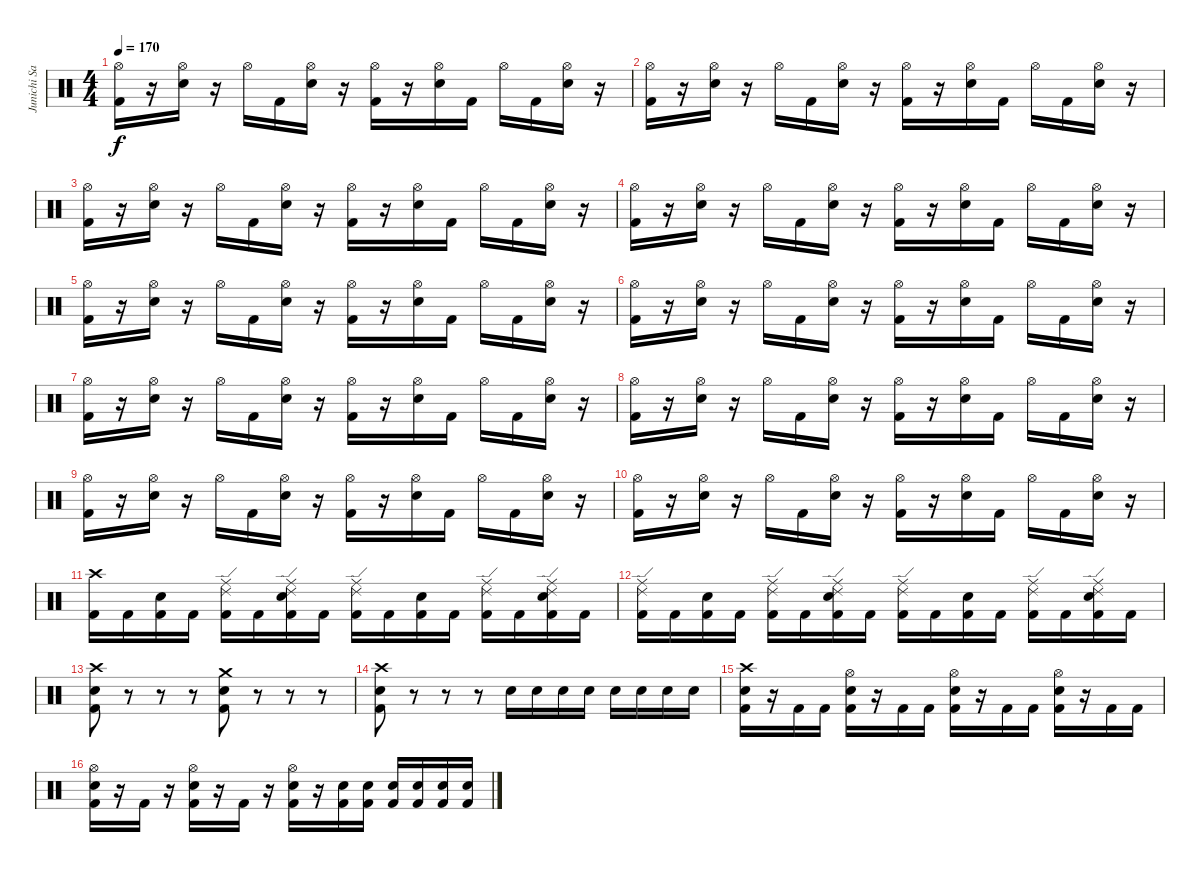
\track ("Junichi Sato" "Junichi Sa") {instrument percussion}
\staff {score}
\articulation defaults
\ts (4 4)
\tempo 170
\clef neutral
\ks c
("Hi-Hat (open)" "Kick (hit) 2").16{dy f} r.16 ("Hi-Hat (open)" "Electric Snare (hit)").16 r.16 "Hi-Hat (open)".16 "Kick (hit) 2".16 ("Hi-Hat (open)" "Electric Snare (hit)").16 r.16 ("Hi-Hat (open)" "Kick (hit) 2").16 r.16 ("Hi-Hat (open)" "Electric Snare (hit)").16 "Kick (hit) 2".16 "Hi-Hat (open)".16 "Kick (hit) 2".16 ("Hi-Hat (open)" "Electric Snare (hit)").16 r.16 |
("Hi-Hat (open)" "Kick (hit) 2").16 r.16 ("Hi-Hat (open)" "Electric Snare (hit)").16 r.16 "Hi-Hat (open)".16 "Kick (hit) 2".16 ("Hi-Hat (open)" "Electric Snare (hit)").16 r.16 ("Hi-Hat (open)" "Kick (hit) 2").16 r.16 ("Hi-Hat (open)" "Electric Snare (hit)").16 "Kick (hit) 2".16 "Hi-Hat (open)".16 "Kick (hit) 2".16 ("Hi-Hat (open)" "Electric Snare (hit)").16 r.16 |
("Hi-Hat (open)" "Kick (hit) 2").16 r.16 ("Hi-Hat (open)" "Electric Snare (hit)").16 r.16 "Hi-Hat (open)".16 "Kick (hit) 2".16 ("Hi-Hat (open)" "Electric Snare (hit)").16 r.16 ("Hi-Hat (open)" "Kick (hit) 2").16 r.16 ("Hi-Hat (open)" "Electric Snare (hit)").16 "Kick (hit) 2".16 "Hi-Hat (open)".16 "Kick (hit) 2".16 ("Hi-Hat (open)" "Electric Snare (hit)").16 r.16 |
("Hi-Hat (open)" "Kick (hit) 2").16 r.16 ("Hi-Hat (open)" "Electric Snare (hit)").16 r.16 "Hi-Hat (open)".16 "Kick (hit) 2".16 ("Hi-Hat (open)" "Electric Snare (hit)").16 r.16 ("Hi-Hat (open)" "Kick (hit) 2").16 r.16 ("Hi-Hat (open)" "Electric Snare (hit)").16 "Kick (hit) 2".16 "Hi-Hat (open)".16 "Kick (hit) 2".16 ("Hi-Hat (open)" "Electric Snare (hit)").16 r.16 |
("Hi-Hat (open)" "Kick (hit) 2").16 r.16 ("Hi-Hat (open)" "Electric Snare (hit)").16 r.16 "Hi-Hat (open)".16 "Kick (hit) 2".16 ("Hi-Hat (open)" "Electric Snare (hit)").16 r.16 ("Hi-Hat (open)" "Kick (hit) 2").16 r.16 ("Hi-Hat (open)" "Electric Snare (hit)").16 "Kick (hit) 2".16 "Hi-Hat (open)".16 "Kick (hit) 2".16 ("Hi-Hat (open)" "Electric Snare (hit)").16 r.16 |
("Hi-Hat (open)" "Kick (hit) 2").16 r.16 ("Hi-Hat (open)" "Electric Snare (hit)").16 r.16 "Hi-Hat (open)".16 "Kick (hit) 2".16 ("Hi-Hat (open)" "Electric Snare (hit)").16 r.16 ("Hi-Hat (open)" "Kick (hit) 2").16 r.16 ("Hi-Hat (open)" "Electric Snare (hit)").16 "Kick (hit) 2".16 "Hi-Hat (open)".16 "Kick (hit) 2".16 ("Hi-Hat (open)" "Electric Snare (hit)").16 r.16 |
("Hi-Hat (open)" "Kick (hit) 2").16 r.16 ("Hi-Hat (open)" "Electric Snare (hit)").16 r.16 "Hi-Hat (open)".16 "Kick (hit) 2".16 ("Hi-Hat (open)" "Electric Snare (hit)").16 r.16 ("Hi-Hat (open)" "Kick (hit) 2").16 r.16 ("Hi-Hat (open)" "Electric Snare (hit)").16 "Kick (hit) 2".16 "Hi-Hat (open)".16 "Kick (hit) 2".16 ("Hi-Hat (open)" "Electric Snare (hit)").16 r.16 |
("Hi-Hat (open)" "Kick (hit) 2").16 r.16 ("Hi-Hat (open)" "Electric Snare (hit)").16 r.16 "Hi-Hat (open)".16 "Kick (hit) 2".16 ("Hi-Hat (open)" "Electric Snare (hit)").16 r.16 ("Hi-Hat (open)" "Kick (hit) 2").16 r.16 ("Hi-Hat (open)" "Electric Snare (hit)").16 "Kick (hit) 2".16 "Hi-Hat (open)".16 "Kick (hit) 2".16 ("Hi-Hat (open)" "Electric Snare (hit)").16 r.16 |
("Hi-Hat (open)" "Kick (hit) 2").16 r.16 ("Hi-Hat (open)" "Electric Snare (hit)").16 r.16 "Hi-Hat (open)".16 "Kick (hit) 2".16 ("Hi-Hat (open)" "Electric Snare (hit)").16 r.16 ("Hi-Hat (open)" "Kick (hit) 2").16 r.16 ("Hi-Hat (open)" "Electric Snare (hit)").16 "Kick (hit) 2".16 "Hi-Hat (open)".16 "Kick (hit) 2".16 ("Hi-Hat (open)" "Electric Snare (hit)").16 r.16 |
("Hi-Hat (open)" "Kick (hit) 2").16 r.16 ("Hi-Hat (open)" "Electric Snare (hit)").16 r.16 "Hi-Hat (open)".16 "Kick (hit) 2".16 ("Hi-Hat (open)" "Electric Snare (hit)").16 r.16 ("Hi-Hat (open)" "Kick (hit) 2").16 r.16 ("Hi-Hat (open)" "Electric Snare (hit)").16 "Kick (hit) 2".16 "Hi-Hat (open)".16 "Kick (hit) 2".16 ("Hi-Hat (open)" "Electric Snare (hit)").16 r.16 |
("Crash high (hit)" "Kick (hit) 2").16 "Kick (hit) 2".16 ("Electric Snare (hit)" "Kick (hit) 2").16 "Kick (hit) 2".16 ("Ride (edge) 2" "Ride (middle)" "Kick (hit) 2").16 "Kick (hit) 2".16 ("Ride (edge) 2" "Ride (middle)" "Electric Snare (hit)" "Kick (hit) 2").16 "Kick (hit) 2".16 ("Ride (edge) 2" "Ride (middle)" "Kick (hit) 2").16 "Kick (hit) 2".16 ("Electric Snare (hit)" "Kick (hit) 2").16 "Kick (hit) 2".16 ("Ride (edge) 2" "Ride (middle)" "Kick (hit) 2").16 "Kick (hit) 2".16 ("Ride (edge) 2" "Ride (middle)" "Electric Snare (hit)" "Kick (hit) 2").16 "Kick (hit) 2".16 |
("Ride (edge) 2" "Ride (middle)" "Kick (hit) 2").16 "Kick (hit) 2".16 ("Electric Snare (hit)" "Kick (hit) 2").16 "Kick (hit) 2".16 ("Ride (edge) 2" "Ride (middle)" "Kick (hit) 2").16 "Kick (hit) 2".16 ("Ride (edge) 2" "Ride (middle)" "Electric Snare (hit)" "Kick (hit) 2").16 "Kick (hit) 2".16 ("Ride (edge) 2" "Ride (middle)" "Kick (hit) 2").16 "Kick (hit) 2".16 ("Electric Snare (hit)" "Kick (hit) 2").16 "Kick (hit) 2".16 ("Ride (edge) 2" "Ride (middle)" "Kick (hit) 2").16 "Kick (hit) 2".16 ("Ride (edge) 2" "Ride (middle)" "Electric Snare (hit)" "Kick (hit) 2").16 "Kick (hit) 2".16 |
("Crash high (hit)" "Electric Snare (hit)" "Kick (hit) 2").8 r.8 r.8 r.8 ("Crash medium (hit)" "Electric Snare (hit)" "Kick (hit) 2").8 r.8 r.8 r.8 |
("Crash high (hit)" "Electric Snare (hit)" "Kick (hit) 2").8 r.8 r.8 r.8 "Electric Snare (hit)".16 "Electric Snare (hit)".16 "Electric Snare (hit)".16 "Electric Snare (hit)".16 "Electric Snare (hit)".16 "Electric Snare (hit)".16 "Electric Snare (hit)".16 "Electric Snare (hit)".16 |
("Crash high (hit)" "Electric Snare (hit)" "Kick (hit) 2").16 r.16 "Kick (hit) 2".16 "Kick (hit) 2".16 ("Hi-Hat (open)" "Electric Snare (hit)" "Kick (hit) 2").16 r.16 "Kick (hit) 2".16 "Kick (hit) 2".16 ("Hi-Hat (open)" "Electric Snare (hit)" "Kick (hit) 2").16 r.16 "Kick (hit) 2".16 "Kick (hit) 2".16 ("Hi-Hat (open)" "Electric Snare (hit)" "Kick (hit) 2").16 r.16 "Kick (hit) 2".16 "Kick (hit) 2".16 |
("Hi-Hat (open)" "Electric Snare (hit)" "Kick (hit) 2").16 r.16 "Kick (hit) 2".16 r.16 ("Hi-Hat (open)" "Electric Snare (hit)" "Kick (hit) 2").16 r.16 "Kick (hit) 2".16 r.16 ("Hi-Hat (open)" "Electric Snare (hit)" "Kick (hit) 2").16 r.16 ("Electric Snare (hit)" "Kick (hit) 2").16 ("Electric Snare (hit)" "Kick (hit) 2").16 ("Electric Snare (hit)" "Kick (hit) 2").16 ("Electric Snare (hit)" "Kick (hit) 2").16 ("Electric Snare (hit)" "Kick (hit) 2").16 ("Electric Snare (hit)" "Kick (hit) 2").16
